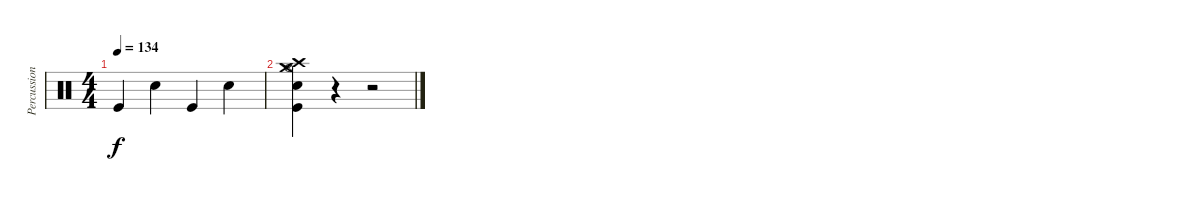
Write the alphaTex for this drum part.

\track ("Percussions" "Percussion") {instrument percussion}
\staff {score}
\articulation defaults
\ts (4 4)
\tempo 134
\clef neutral
\ks c "Kick (hit)".4{dy f} "Snare (hit) 2".4 "Kick (hit)".4 "Snare (hit) 2".4
|
("Snare (hit) 2" "Kick (hit)" "Hi-Hat (open)" "Crash high (hit)" "Crash medium (hit)").4 r.4 r.2
